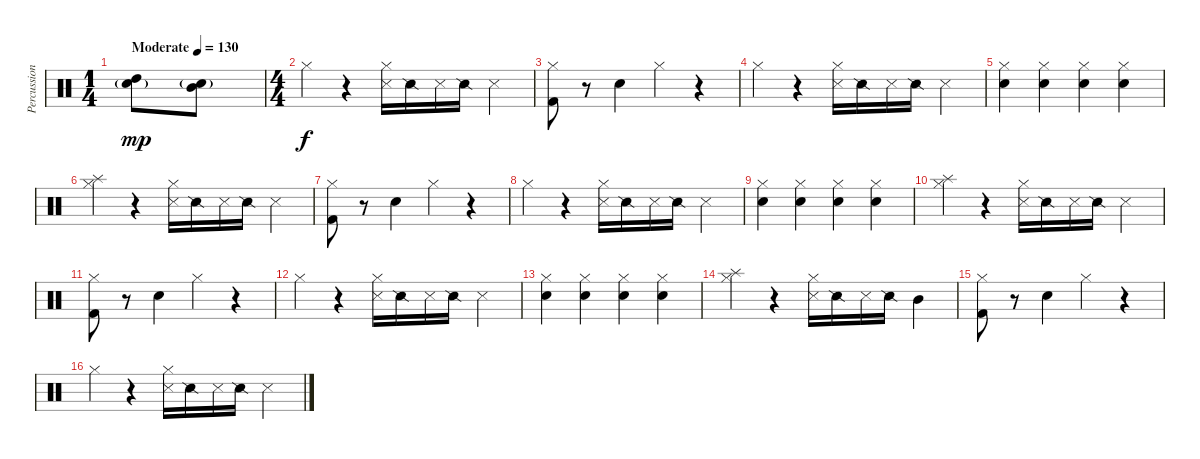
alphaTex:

\track ("Percussion" "Percussion") {instrument percussion}
\staff {score}
\articulation defaults
\ts (1 4)
\tempo (130 "Moderate")
\clef neutral
\ks c
("High Tom (hit)" "Snare (hit) 2"{g}).8{dy mp} ("Mid Tom (hit)" "Snare (hit) 2"{g}).8 |
\ts (4 4)
"Hi-Hat (closed)".4{dy f} r.4 ("Hi-Hat (closed)" "Snare (side stick) 3").16 "Snare (side stick) 2".16 "Snare (side stick) 3".16 "Snare (side stick) 2".16 "Snare (side stick) 3".4 |
("Hi-Hat (closed)" "Kick (hit) 2").8 r.8 "Snare (hit) 2".4 "Hi-Hat (closed)".4 r.4 |
"Hi-Hat (closed)".4 r.4 ("Hi-Hat (closed)" "Snare (side stick) 3").16 "Snare (side stick) 2".16 "Snare (side stick) 3".16 "Snare (side stick) 2".16 "Snare (side stick) 3".4 |
("Hi-Hat (closed)" "Snare (hit) 2").4 ("Hi-Hat (closed)" "Snare (hit) 2").4 ("Hi-Hat (closed)" "Snare (hit) 2").4 ("Hi-Hat (closed)" "Snare (hit) 2").4 |
("Splash (hit)" "Hi-Hat (closed)").4 r.4 ("Hi-Hat (closed)" "Snare (side stick) 3").16 "Snare (side stick) 2".16 "Snare (side stick) 3".16 "Snare (side stick) 2".16 "Snare (side stick) 3".4 |
("Hi-Hat (closed)" "Kick (hit) 2").8 r.8 "Snare (hit) 2".4 "Hi-Hat (closed)".4 r.4 |
"Hi-Hat (closed)".4 r.4 ("Hi-Hat (closed)" "Snare (side stick) 3").16 "Snare (side stick) 2".16 "Snare (side stick) 3".16 "Snare (side stick) 2".16 "Snare (side stick) 3".4 |
("Hi-Hat (closed)" "Snare (hit) 2").4 ("Hi-Hat (closed)" "Snare (hit) 2").4 ("Hi-Hat (closed)" "Snare (hit) 2").4 ("Hi-Hat (closed)" "Snare (hit) 2").4 |
("Splash (hit)" "Hi-Hat (closed)").4 r.4 ("Hi-Hat (closed)" "Snare (side stick) 3").16 "Snare (side stick) 2".16 "Snare (side stick) 3".16 "Snare (side stick) 2".16 "Snare (side stick) 3".4 |
("Hi-Hat (closed)" "Kick (hit) 2").8 r.8 "Snare (hit) 2".4 "Hi-Hat (closed)".4 r.4 |
"Hi-Hat (closed)".4 r.4 ("Hi-Hat (closed)" "Snare (side stick) 3").16 "Snare (side stick) 2".16 "Snare (side stick) 3".16 "Snare (side stick) 2".16 "Snare (side stick) 3".4 |
("Hi-Hat (closed)" "Snare (hit) 2").4 ("Hi-Hat (closed)" "Snare (hit) 2").4 ("Hi-Hat (closed)" "Snare (hit) 2").4 ("Hi-Hat (closed)" "Snare (hit) 2").4 |
("Splash (hit)" "Hi-Hat (closed)").4 r.4 ("Hi-Hat (closed)" "Snare (side stick) 3").16 "Snare (side stick) 2".16 "Snare (side stick) 3".16 "Snare (side stick) 2".16 "Mid Tom (hit)".4 |
("Hi-Hat (closed)" "Kick (hit) 2").8 r.8 "Snare (hit) 2".4 "Hi-Hat (closed)".4 r.4 |
"Hi-Hat (closed)".4 r.4 ("Hi-Hat (closed)" "Snare (side stick) 3").16 "Snare (side stick) 2".16 "Snare (side stick) 3".16 "Snare (side stick) 2".16 "Snare (side stick) 3".4
